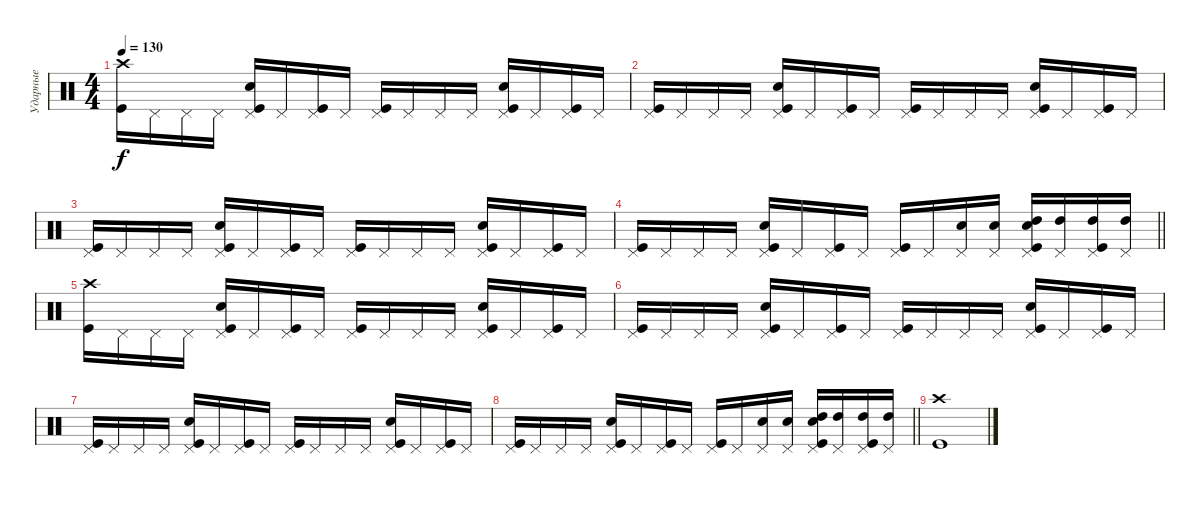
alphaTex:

\track ("Ударные" "Ударные") {instrument percussion}
\staff {score}
\articulation defaults
\ts (4 4)
\tempo 130
\clef neutral
\ks c
("Crash high (hit)" "Kick (hit)").16{dy f} "Pedal Hi-Hat (hit)".16 "Pedal Hi-Hat (hit)".16 "Pedal Hi-Hat (hit)".16 ("Pedal Hi-Hat (hit)" "Kick (hit)" "Snare (hit) 2").16 "Pedal Hi-Hat (hit)".16 ("Pedal Hi-Hat (hit)" "Kick (hit)").16 "Pedal Hi-Hat (hit)".16 ("Pedal Hi-Hat (hit)" "Kick (hit)").16 "Pedal Hi-Hat (hit)".16 "Pedal Hi-Hat (hit)".16 "Pedal Hi-Hat (hit)".16 ("Pedal Hi-Hat (hit)" "Kick (hit)" "Snare (hit) 2").16 "Pedal Hi-Hat (hit)".16 ("Pedal Hi-Hat (hit)" "Kick (hit)").16 "Pedal Hi-Hat (hit)".16 |
("Pedal Hi-Hat (hit)" "Kick (hit)").16 "Pedal Hi-Hat (hit)".16 "Pedal Hi-Hat (hit)".16 "Pedal Hi-Hat (hit)".16 ("Pedal Hi-Hat (hit)" "Kick (hit)" "Snare (hit) 2").16 "Pedal Hi-Hat (hit)".16 ("Pedal Hi-Hat (hit)" "Kick (hit)").16 "Pedal Hi-Hat (hit)".16 ("Pedal Hi-Hat (hit)" "Kick (hit)").16 "Pedal Hi-Hat (hit)".16 "Pedal Hi-Hat (hit)".16 "Pedal Hi-Hat (hit)".16 ("Pedal Hi-Hat (hit)" "Kick (hit)" "Snare (hit) 2").16 "Pedal Hi-Hat (hit)".16 ("Pedal Hi-Hat (hit)" "Kick (hit)").16 "Pedal Hi-Hat (hit)".16 |
("Pedal Hi-Hat (hit)" "Kick (hit)").16 "Pedal Hi-Hat (hit)".16 "Pedal Hi-Hat (hit)".16 "Pedal Hi-Hat (hit)".16 ("Pedal Hi-Hat (hit)" "Kick (hit)" "Snare (hit) 2").16 "Pedal Hi-Hat (hit)".16 ("Pedal Hi-Hat (hit)" "Kick (hit)").16 "Pedal Hi-Hat (hit)".16 ("Pedal Hi-Hat (hit)" "Kick (hit)").16 "Pedal Hi-Hat (hit)".16 "Pedal Hi-Hat (hit)".16 "Pedal Hi-Hat (hit)".16 ("Pedal Hi-Hat (hit)" "Kick (hit)" "Snare (hit) 2").16 "Pedal Hi-Hat (hit)".16 ("Pedal Hi-Hat (hit)" "Kick (hit)").16 "Pedal Hi-Hat (hit)".16 |
\barLineRight lightlight
("Pedal Hi-Hat (hit)" "Kick (hit)").16 "Pedal Hi-Hat (hit)".16 "Pedal Hi-Hat (hit)".16 "Pedal Hi-Hat (hit)".16 ("Pedal Hi-Hat (hit)" "Kick (hit)" "Snare (hit) 2").16 "Pedal Hi-Hat (hit)".16 ("Pedal Hi-Hat (hit)" "Kick (hit)").16 "Pedal Hi-Hat (hit)".16 ("Pedal Hi-Hat (hit)" "Kick (hit)").16 "Pedal Hi-Hat (hit)".16 ("Pedal Hi-Hat (hit)" "Snare (hit) 2").16 ("Pedal Hi-Hat (hit)" "Snare (hit) 2").16 ("Pedal Hi-Hat (hit)" "Kick (hit)" "Snare (hit) 2" "High Tom (hit)").16 ("Pedal Hi-Hat (hit)" "High Tom (hit)").16 ("Pedal Hi-Hat (hit)" "Kick (hit)" "High Tom (hit)").16 ("Pedal Hi-Hat (hit)" "High Tom (hit)").16 |
("Crash high (hit)" "Kick (hit)").16 "Pedal Hi-Hat (hit)".16 "Pedal Hi-Hat (hit)".16 "Pedal Hi-Hat (hit)".16 ("Pedal Hi-Hat (hit)" "Kick (hit)" "Snare (hit) 2").16 "Pedal Hi-Hat (hit)".16 ("Pedal Hi-Hat (hit)" "Kick (hit)").16 "Pedal Hi-Hat (hit)".16 ("Pedal Hi-Hat (hit)" "Kick (hit)").16 "Pedal Hi-Hat (hit)".16 "Pedal Hi-Hat (hit)".16 "Pedal Hi-Hat (hit)".16 ("Pedal Hi-Hat (hit)" "Kick (hit)" "Snare (hit) 2").16 "Pedal Hi-Hat (hit)".16 ("Pedal Hi-Hat (hit)" "Kick (hit)").16 "Pedal Hi-Hat (hit)".16 |
("Pedal Hi-Hat (hit)" "Kick (hit)").16 "Pedal Hi-Hat (hit)".16 "Pedal Hi-Hat (hit)".16 "Pedal Hi-Hat (hit)".16 ("Pedal Hi-Hat (hit)" "Kick (hit)" "Snare (hit) 2").16 "Pedal Hi-Hat (hit)".16 ("Pedal Hi-Hat (hit)" "Kick (hit)").16 "Pedal Hi-Hat (hit)".16 ("Pedal Hi-Hat (hit)" "Kick (hit)").16 "Pedal Hi-Hat (hit)".16 "Pedal Hi-Hat (hit)".16 "Pedal Hi-Hat (hit)".16 ("Pedal Hi-Hat (hit)" "Kick (hit)" "Snare (hit) 2").16 "Pedal Hi-Hat (hit)".16 ("Pedal Hi-Hat (hit)" "Kick (hit)").16 "Pedal Hi-Hat (hit)".16 |
("Pedal Hi-Hat (hit)" "Kick (hit)").16 "Pedal Hi-Hat (hit)".16 "Pedal Hi-Hat (hit)".16 "Pedal Hi-Hat (hit)".16 ("Pedal Hi-Hat (hit)" "Kick (hit)" "Snare (hit) 2").16 "Pedal Hi-Hat (hit)".16 ("Pedal Hi-Hat (hit)" "Kick (hit)").16 "Pedal Hi-Hat (hit)".16 ("Pedal Hi-Hat (hit)" "Kick (hit)").16 "Pedal Hi-Hat (hit)".16 "Pedal Hi-Hat (hit)".16 "Pedal Hi-Hat (hit)".16 ("Pedal Hi-Hat (hit)" "Kick (hit)" "Snare (hit) 2").16 "Pedal Hi-Hat (hit)".16 ("Pedal Hi-Hat (hit)" "Kick (hit)").16 "Pedal Hi-Hat (hit)".16 |
\barLineRight lightlight
("Pedal Hi-Hat (hit)" "Kick (hit)").16 "Pedal Hi-Hat (hit)".16 "Pedal Hi-Hat (hit)".16 "Pedal Hi-Hat (hit)".16 ("Pedal Hi-Hat (hit)" "Kick (hit)" "Snare (hit) 2").16 "Pedal Hi-Hat (hit)".16 ("Pedal Hi-Hat (hit)" "Kick (hit)").16 "Pedal Hi-Hat (hit)".16 ("Pedal Hi-Hat (hit)" "Kick (hit)").16 "Pedal Hi-Hat (hit)".16 ("Pedal Hi-Hat (hit)" "Snare (hit) 2").16 ("Pedal Hi-Hat (hit)" "Snare (hit) 2").16 ("Pedal Hi-Hat (hit)" "Kick (hit)" "Snare (hit) 2" "High Tom (hit)").16 ("Pedal Hi-Hat (hit)" "High Tom (hit)").16 ("Pedal Hi-Hat (hit)" "Kick (hit)" "High Tom (hit)").16 ("Pedal Hi-Hat (hit)" "High Tom (hit)").16 |
("Crash high (hit)" "Kick (hit)").1
